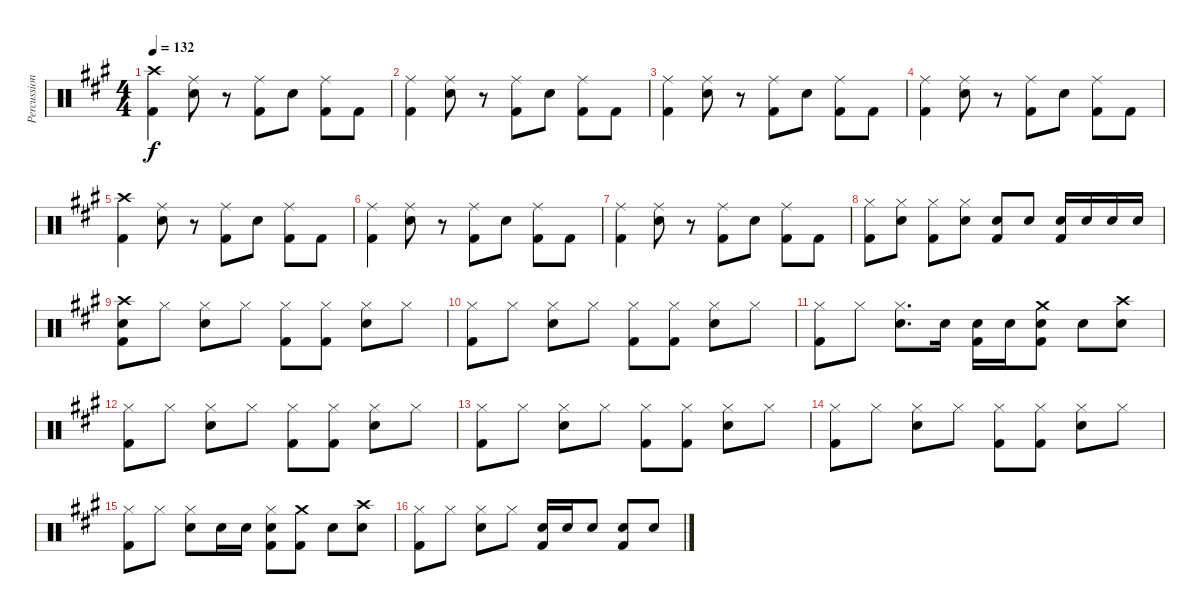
\track ("Percussion" "Percussion") {instrument percussion}
\staff {score}
\articulation defaults
\ts (4 4)
\tempo 132
\clef neutral
\ks a
("Crash high (hit)" "Kick (hit) 2").4{dy f} ("Ride (middle)" "Snare (hit) 2").8 r.8 ("Ride (middle)" "Kick (hit) 2").8 "Snare (hit) 2".8 ("Ride (middle)" "Kick (hit) 2").8 "Kick (hit) 2".8 |
("Ride (middle)" "Kick (hit) 2").4 ("Ride (middle)" "Snare (hit) 2").8 r.8 ("Ride (middle)" "Kick (hit) 2").8 "Snare (hit) 2".8 ("Ride (middle)" "Kick (hit) 2").8 "Kick (hit) 2".8 |
("Ride (middle)" "Kick (hit) 2").4 ("Ride (middle)" "Snare (hit) 2").8 r.8 ("Ride (middle)" "Kick (hit) 2").8 "Snare (hit) 2".8 ("Ride (middle)" "Kick (hit) 2").8 "Kick (hit) 2".8 |
("Ride (middle)" "Kick (hit) 2").4 ("Ride (middle)" "Snare (hit) 2").8 r.8 ("Ride (middle)" "Kick (hit) 2").8 "Snare (hit) 2".8 ("Ride (middle)" "Kick (hit) 2").8 "Kick (hit) 2".8 |
("Crash high (hit)" "Kick (hit) 2").4 ("Ride (middle)" "Snare (hit) 2").8 r.8 ("Ride (middle)" "Kick (hit) 2").8 "Snare (hit) 2".8 ("Ride (middle)" "Kick (hit) 2").8 "Kick (hit) 2".8 |
("Ride (middle)" "Kick (hit) 2").4 ("Ride (middle)" "Snare (hit) 2").8 r.8 ("Ride (middle)" "Kick (hit) 2").8 "Snare (hit) 2".8 ("Ride (middle)" "Kick (hit) 2").8 "Kick (hit) 2".8 |
("Ride (middle)" "Kick (hit) 2").4 ("Ride (middle)" "Snare (hit) 2").8 r.8 ("Ride (middle)" "Kick (hit) 2").8 "Snare (hit) 2".8 ("Ride (middle)" "Kick (hit) 2").8 "Kick (hit) 2".8 |
("Hi-Hat (closed)" "Kick (hit) 2").8 ("Hi-Hat (closed)" "Snare (hit) 2").8 ("Hi-Hat (closed)" "Kick (hit) 2").8 ("Hi-Hat (closed)" "Snare (hit) 2").8 ("Snare (hit) 2" "Kick (hit) 2").8 "Snare (hit) 2".8 ("Snare (hit) 2" "Kick (hit) 2").16 "Snare (hit) 2".16 "Snare (hit) 2".16 "Snare (hit) 2".16 |
("Crash high (hit)" "Snare (hit) 2" "Kick (hit) 2").8 "Hi-Hat (closed)".8 ("Hi-Hat (closed)" "Snare (hit) 2").8 "Hi-Hat (closed)".8 ("Hi-Hat (closed)" "Kick (hit) 2").8 ("Hi-Hat (closed)" "Kick (hit) 2").8 ("Hi-Hat (closed)" "Snare (hit) 2").8 "Hi-Hat (closed)".8 |
("Hi-Hat (closed)" "Kick (hit) 2").8 "Hi-Hat (closed)".8 ("Hi-Hat (closed)" "Snare (hit) 2").8 "Hi-Hat (closed)".8 ("Hi-Hat (closed)" "Kick (hit) 2").8 ("Hi-Hat (closed)" "Kick (hit) 2").8 ("Hi-Hat (closed)" "Snare (hit) 2").8 "Hi-Hat (closed)".8 |
("Hi-Hat (closed)" "Kick (hit) 2").8 "Hi-Hat (closed)".8 ("Hi-Hat (closed)" "Snare (hit) 2").8{d} "Snare (hit) 2".16 ("Snare (hit) 2" "Kick (hit) 2").16 "Snare (hit) 2".16 ("Crash medium (hit)" "Snare (hit) 2" "Kick (hit) 2").8 "Snare (hit) 2".8 ("Crash high (hit)" "Snare (hit) 2").8 |
("Hi-Hat (closed)" "Kick (hit) 2").8 "Hi-Hat (closed)".8 ("Hi-Hat (closed)" "Snare (hit) 2").8 "Hi-Hat (closed)".8 ("Hi-Hat (closed)" "Kick (hit) 2").8 ("Hi-Hat (closed)" "Kick (hit) 2").8 ("Hi-Hat (closed)" "Snare (hit) 2").8 "Hi-Hat (closed)".8 |
("Hi-Hat (closed)" "Kick (hit) 2").8 "Hi-Hat (closed)".8 ("Hi-Hat (closed)" "Snare (hit) 2").8 "Hi-Hat (closed)".8 ("Hi-Hat (closed)" "Kick (hit) 2").8 ("Hi-Hat (closed)" "Kick (hit) 2").8 ("Hi-Hat (closed)" "Snare (hit) 2").8 "Hi-Hat (closed)".8 |
("Hi-Hat (closed)" "Kick (hit) 2").8 "Hi-Hat (closed)".8 ("Hi-Hat (closed)" "Snare (hit) 2").8 "Hi-Hat (closed)".8 ("Hi-Hat (closed)" "Kick (hit) 2").8 ("Hi-Hat (closed)" "Kick (hit) 2").8 ("Hi-Hat (closed)" "Snare (hit) 2").8 "Hi-Hat (closed)".8 |
("Hi-Hat (closed)" "Kick (hit) 2").8 "Hi-Hat (closed)".8 ("Hi-Hat (closed)" "Snare (hit) 2").8 "Snare (hit) 2".16 "Snare (hit) 2".16 ("Hi-Hat (closed)" "Snare (hit) 2" "Kick (hit) 2").8 ("Crash medium (hit)" "Kick (hit) 2").8 "Snare (hit) 2".8 ("Crash high (hit)" "Snare (hit) 2").8 |
("Hi-Hat (closed)" "Kick (hit) 2").8 "Hi-Hat (closed)".8 ("Hi-Hat (closed)" "Snare (hit) 2").8 "Hi-Hat (closed)".8 ("Snare (hit) 2" "Kick (hit) 2").16 "Snare (hit) 2".16 "Snare (hit) 2".8 ("Snare (hit) 2" "Kick (hit) 2").8 "Snare (hit) 2".8
